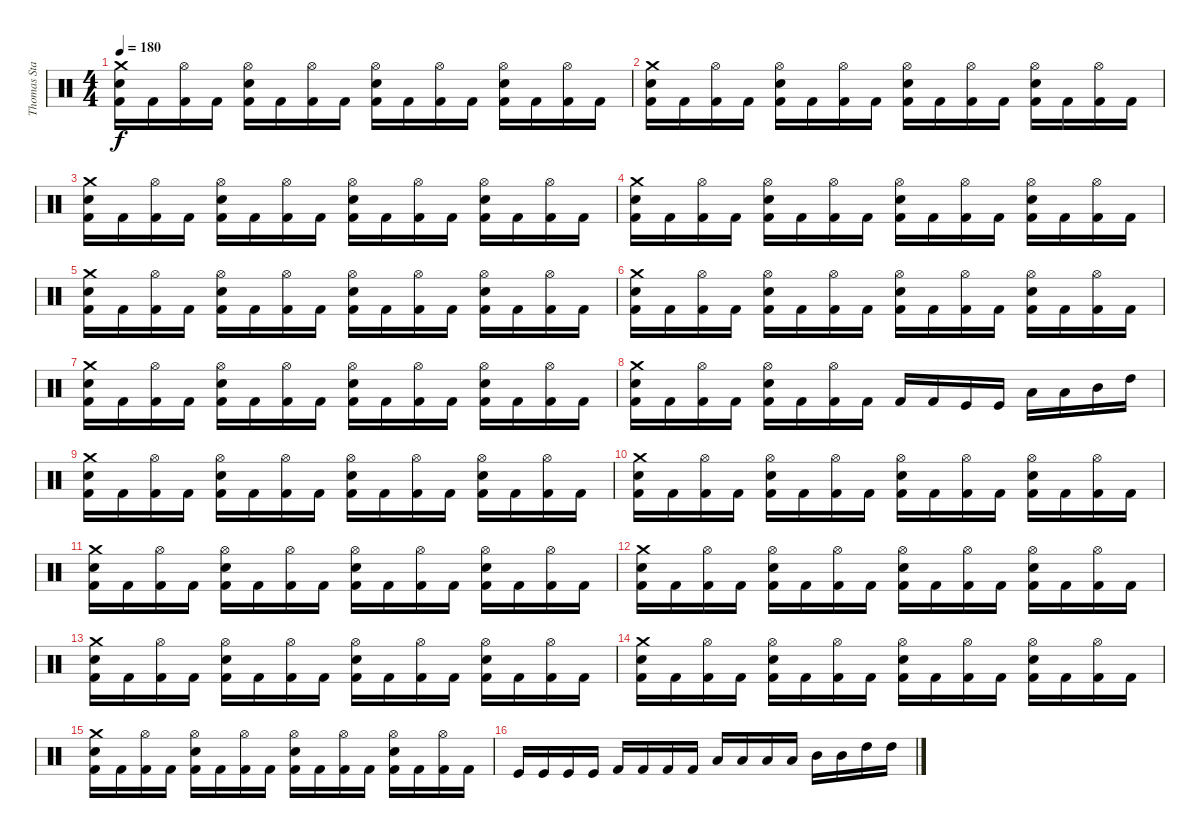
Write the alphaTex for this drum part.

\track ("Thomas Stauch" "Thomas Sta") {instrument percussion}
\staff {score}
\articulation defaults
\ts (4 4)
\tempo 180
\clef neutral
\ks c
("Kick (hit) 2" "Snare (hit) 2" "Crash medium (hit)").16{dy f} "Kick (hit) 2".16 ("Kick (hit) 2" "Hi-Hat (open)").16 "Kick (hit) 2".16 ("Kick (hit) 2" "Snare (hit) 2" "Hi-Hat (open)").16 "Kick (hit) 2".16 ("Kick (hit) 2" "Hi-Hat (open)").16 "Kick (hit) 2".16 ("Kick (hit) 2" "Snare (hit) 2" "Hi-Hat (open)").16 "Kick (hit) 2".16 ("Kick (hit) 2" "Hi-Hat (open)").16 "Kick (hit) 2".16 ("Kick (hit) 2" "Snare (hit) 2" "Hi-Hat (open)").16 "Kick (hit) 2".16 ("Kick (hit) 2" "Hi-Hat (open)").16 "Kick (hit) 2".16 |
("Kick (hit) 2" "Snare (hit) 2" "Crash medium (hit)").16 "Kick (hit) 2".16 ("Kick (hit) 2" "Hi-Hat (open)").16 "Kick (hit) 2".16 ("Kick (hit) 2" "Snare (hit) 2" "Hi-Hat (open)").16 "Kick (hit) 2".16 ("Kick (hit) 2" "Hi-Hat (open)").16 "Kick (hit) 2".16 ("Kick (hit) 2" "Snare (hit) 2" "Hi-Hat (open)").16 "Kick (hit) 2".16 ("Kick (hit) 2" "Hi-Hat (open)").16 "Kick (hit) 2".16 ("Kick (hit) 2" "Snare (hit) 2" "Hi-Hat (open)").16 "Kick (hit) 2".16 ("Kick (hit) 2" "Hi-Hat (open)").16 "Kick (hit) 2".16 |
("Kick (hit) 2" "Snare (hit) 2" "Crash medium (hit)").16 "Kick (hit) 2".16 ("Kick (hit) 2" "Hi-Hat (open)").16 "Kick (hit) 2".16 ("Kick (hit) 2" "Snare (hit) 2" "Hi-Hat (open)").16 "Kick (hit) 2".16 ("Kick (hit) 2" "Hi-Hat (open)").16 "Kick (hit) 2".16 ("Kick (hit) 2" "Snare (hit) 2" "Hi-Hat (open)").16 "Kick (hit) 2".16 ("Kick (hit) 2" "Hi-Hat (open)").16 "Kick (hit) 2".16 ("Kick (hit) 2" "Snare (hit) 2" "Hi-Hat (open)").16 "Kick (hit) 2".16 ("Kick (hit) 2" "Hi-Hat (open)").16 "Kick (hit) 2".16 |
("Kick (hit) 2" "Snare (hit) 2" "Crash medium (hit)").16 "Kick (hit) 2".16 ("Kick (hit) 2" "Hi-Hat (open)").16 "Kick (hit) 2".16 ("Kick (hit) 2" "Snare (hit) 2" "Hi-Hat (open)").16 "Kick (hit) 2".16 ("Kick (hit) 2" "Hi-Hat (open)").16 "Kick (hit) 2".16 ("Kick (hit) 2" "Snare (hit) 2" "Hi-Hat (open)").16 "Kick (hit) 2".16 ("Kick (hit) 2" "Hi-Hat (open)").16 "Kick (hit) 2".16 ("Kick (hit) 2" "Snare (hit) 2" "Hi-Hat (open)").16 "Kick (hit) 2".16 ("Kick (hit) 2" "Hi-Hat (open)").16 "Kick (hit) 2".16 |
("Kick (hit) 2" "Snare (hit) 2" "Crash medium (hit)").16 "Kick (hit) 2".16 ("Kick (hit) 2" "Hi-Hat (open)").16 "Kick (hit) 2".16 ("Kick (hit) 2" "Snare (hit) 2" "Hi-Hat (open)").16 "Kick (hit) 2".16 ("Kick (hit) 2" "Hi-Hat (open)").16 "Kick (hit) 2".16 ("Kick (hit) 2" "Snare (hit) 2" "Hi-Hat (open)").16 "Kick (hit) 2".16 ("Kick (hit) 2" "Hi-Hat (open)").16 "Kick (hit) 2".16 ("Kick (hit) 2" "Snare (hit) 2" "Hi-Hat (open)").16 "Kick (hit) 2".16 ("Kick (hit) 2" "Hi-Hat (open)").16 "Kick (hit) 2".16 |
("Kick (hit) 2" "Snare (hit) 2" "Crash medium (hit)").16 "Kick (hit) 2".16 ("Kick (hit) 2" "Hi-Hat (open)").16 "Kick (hit) 2".16 ("Kick (hit) 2" "Snare (hit) 2" "Hi-Hat (open)").16 "Kick (hit) 2".16 ("Kick (hit) 2" "Hi-Hat (open)").16 "Kick (hit) 2".16 ("Kick (hit) 2" "Snare (hit) 2" "Hi-Hat (open)").16 "Kick (hit) 2".16 ("Kick (hit) 2" "Hi-Hat (open)").16 "Kick (hit) 2".16 ("Kick (hit) 2" "Snare (hit) 2" "Hi-Hat (open)").16 "Kick (hit) 2".16 ("Kick (hit) 2" "Hi-Hat (open)").16 "Kick (hit) 2".16 |
("Kick (hit) 2" "Snare (hit) 2" "Crash medium (hit)").16 "Kick (hit) 2".16 ("Kick (hit) 2" "Hi-Hat (open)").16 "Kick (hit) 2".16 ("Kick (hit) 2" "Snare (hit) 2" "Hi-Hat (open)").16 "Kick (hit) 2".16 ("Kick (hit) 2" "Hi-Hat (open)").16 "Kick (hit) 2".16 ("Kick (hit) 2" "Snare (hit) 2" "Hi-Hat (open)").16 "Kick (hit) 2".16 ("Kick (hit) 2" "Hi-Hat (open)").16 "Kick (hit) 2".16 ("Kick (hit) 2" "Snare (hit) 2" "Hi-Hat (open)").16 "Kick (hit) 2".16 ("Kick (hit) 2" "Hi-Hat (open)").16 "Kick (hit) 2".16 |
("Kick (hit) 2" "Snare (hit) 2" "Crash medium (hit)").16 "Kick (hit) 2".16 ("Kick (hit) 2" "Hi-Hat (open)").16 "Kick (hit) 2".16 ("Kick (hit) 2" "Snare (hit) 2" "Hi-Hat (open)").16 "Kick (hit) 2".16 ("Kick (hit) 2" "Hi-Hat (open)").16 "Kick (hit) 2".16 "Kick (hit) 2".16 "Kick (hit) 2".16 "Kick (hit)".16 "Kick (hit)".16 "Low Floor Tom (hit)".16 "Low Tom (hit)".16 "Mid Tom (hit)".16 "High Tom (hit)".16 |
("Kick (hit) 2" "Snare (hit) 2" "Crash medium (hit)").16 "Kick (hit) 2".16 ("Kick (hit) 2" "Hi-Hat (open)").16 "Kick (hit) 2".16 ("Kick (hit) 2" "Snare (hit) 2" "Hi-Hat (open)").16 "Kick (hit) 2".16 ("Kick (hit) 2" "Hi-Hat (open)").16 "Kick (hit) 2".16 ("Kick (hit) 2" "Snare (hit) 2" "Hi-Hat (open)").16 "Kick (hit) 2".16 ("Kick (hit) 2" "Hi-Hat (open)").16 "Kick (hit) 2".16 ("Kick (hit) 2" "Snare (hit) 2" "Hi-Hat (open)").16 "Kick (hit) 2".16 ("Kick (hit) 2" "Hi-Hat (open)").16 "Kick (hit) 2".16 |
("Kick (hit) 2" "Snare (hit) 2" "Crash medium (hit)").16 "Kick (hit) 2".16 ("Kick (hit) 2" "Hi-Hat (open)").16 "Kick (hit) 2".16 ("Kick (hit) 2" "Snare (hit) 2" "Hi-Hat (open)").16 "Kick (hit) 2".16 ("Kick (hit) 2" "Hi-Hat (open)").16 "Kick (hit) 2".16 ("Kick (hit) 2" "Snare (hit) 2" "Hi-Hat (open)").16 "Kick (hit) 2".16 ("Kick (hit) 2" "Hi-Hat (open)").16 "Kick (hit) 2".16 ("Kick (hit) 2" "Snare (hit) 2" "Hi-Hat (open)").16 "Kick (hit) 2".16 ("Kick (hit) 2" "Hi-Hat (open)").16 "Kick (hit) 2".16 |
("Kick (hit) 2" "Snare (hit) 2" "Crash medium (hit)").16 "Kick (hit) 2".16 ("Kick (hit) 2" "Hi-Hat (open)").16 "Kick (hit) 2".16 ("Kick (hit) 2" "Snare (hit) 2" "Hi-Hat (open)").16 "Kick (hit) 2".16 ("Kick (hit) 2" "Hi-Hat (open)").16 "Kick (hit) 2".16 ("Kick (hit) 2" "Snare (hit) 2" "Hi-Hat (open)").16 "Kick (hit) 2".16 ("Kick (hit) 2" "Hi-Hat (open)").16 "Kick (hit) 2".16 ("Kick (hit) 2" "Snare (hit) 2" "Hi-Hat (open)").16 "Kick (hit) 2".16 ("Kick (hit) 2" "Hi-Hat (open)").16 "Kick (hit) 2".16 |
("Kick (hit) 2" "Snare (hit) 2" "Crash medium (hit)").16 "Kick (hit) 2".16 ("Kick (hit) 2" "Hi-Hat (open)").16 "Kick (hit) 2".16 ("Kick (hit) 2" "Snare (hit) 2" "Hi-Hat (open)").16 "Kick (hit) 2".16 ("Kick (hit) 2" "Hi-Hat (open)").16 "Kick (hit) 2".16 ("Kick (hit) 2" "Snare (hit) 2" "Hi-Hat (open)").16 "Kick (hit) 2".16 ("Kick (hit) 2" "Hi-Hat (open)").16 "Kick (hit) 2".16 ("Kick (hit) 2" "Snare (hit) 2" "Hi-Hat (open)").16 "Kick (hit) 2".16 ("Kick (hit) 2" "Hi-Hat (open)").16 "Kick (hit) 2".16 |
("Kick (hit) 2" "Snare (hit) 2" "Crash medium (hit)").16 "Kick (hit) 2".16 ("Kick (hit) 2" "Hi-Hat (open)").16 "Kick (hit) 2".16 ("Kick (hit) 2" "Snare (hit) 2" "Hi-Hat (open)").16 "Kick (hit) 2".16 ("Kick (hit) 2" "Hi-Hat (open)").16 "Kick (hit) 2".16 ("Kick (hit) 2" "Snare (hit) 2" "Hi-Hat (open)").16 "Kick (hit) 2".16 ("Kick (hit) 2" "Hi-Hat (open)").16 "Kick (hit) 2".16 ("Kick (hit) 2" "Snare (hit) 2" "Hi-Hat (open)").16 "Kick (hit) 2".16 ("Kick (hit) 2" "Hi-Hat (open)").16 "Kick (hit) 2".16 |
("Kick (hit) 2" "Snare (hit) 2" "Crash medium (hit)").16 "Kick (hit) 2".16 ("Kick (hit) 2" "Hi-Hat (open)").16 "Kick (hit) 2".16 ("Kick (hit) 2" "Snare (hit) 2" "Hi-Hat (open)").16 "Kick (hit) 2".16 ("Kick (hit) 2" "Hi-Hat (open)").16 "Kick (hit) 2".16 ("Kick (hit) 2" "Snare (hit) 2" "Hi-Hat (open)").16 "Kick (hit) 2".16 ("Kick (hit) 2" "Hi-Hat (open)").16 "Kick (hit) 2".16 ("Kick (hit) 2" "Snare (hit) 2" "Hi-Hat (open)").16 "Kick (hit) 2".16 ("Kick (hit) 2" "Hi-Hat (open)").16 "Kick (hit) 2".16 |
("Kick (hit) 2" "Snare (hit) 2" "Crash medium (hit)").16 "Kick (hit) 2".16 ("Kick (hit) 2" "Hi-Hat (open)").16 "Kick (hit) 2".16 ("Kick (hit) 2" "Snare (hit) 2" "Hi-Hat (open)").16 "Kick (hit) 2".16 ("Kick (hit) 2" "Hi-Hat (open)").16 "Kick (hit) 2".16 ("Kick (hit) 2" "Snare (hit) 2" "Hi-Hat (open)").16 "Kick (hit) 2".16 ("Kick (hit) 2" "Hi-Hat (open)").16 "Kick (hit) 2".16 ("Kick (hit) 2" "Snare (hit) 2" "Hi-Hat (open)").16 "Kick (hit) 2".16 ("Kick (hit) 2" "Hi-Hat (open)").16 "Kick (hit) 2".16 |
"Kick (hit)".16 "Kick (hit)".16 "Kick (hit)".16 "Kick (hit)".16 "Kick (hit) 2".16 "Kick (hit) 2".16 "Kick (hit) 2".16 "Kick (hit) 2".16 "Low Tom (hit)".16 "Low Tom (hit)".16 "Low Tom (hit)".16 "Low Tom (hit)".16 "Mid Tom (hit)".16 "Mid Tom (hit)".16 "High Tom (hit)".16 "High Tom (hit)".16
